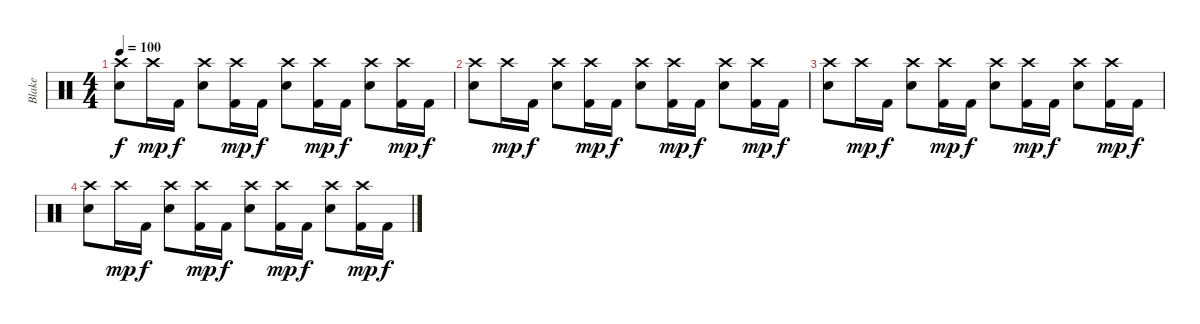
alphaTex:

\track ("Blake" "Blake") {instrument percussion}
\staff {score}
\articulation defaults
\ts (4 4)
\tempo 100
\clef neutral
\ks c
("Crash high (hit)" "Snare (hit) 2").8{dy f} "Crash high (hit)".16{dy mp} "Kick (hit) 2".16{dy f} ("Crash high (hit)" "Snare (hit) 2").8 ("Crash high (hit)" "Kick (hit) 2").16{dy mp} "Kick (hit) 2".16{dy f} ("Crash high (hit)" "Snare (hit) 2").8 ("Crash high (hit)" "Kick (hit) 2").16{dy mp} "Kick (hit) 2".16{dy f} ("Crash high (hit)" "Snare (hit) 2").8 ("Crash high (hit)" "Kick (hit) 2").16{dy mp} "Kick (hit) 2".16{dy f} |
("Crash high (hit)" "Snare (hit) 2").8 "Crash high (hit)".16{dy mp} "Kick (hit) 2".16{dy f} ("Crash high (hit)" "Snare (hit) 2").8 ("Crash high (hit)" "Kick (hit) 2").16{dy mp} "Kick (hit) 2".16{dy f} ("Crash high (hit)" "Snare (hit) 2").8 ("Crash high (hit)" "Kick (hit) 2").16{dy mp} "Kick (hit) 2".16{dy f} ("Crash high (hit)" "Snare (hit) 2").8 ("Crash high (hit)" "Kick (hit) 2").16{dy mp} "Kick (hit) 2".16{dy f} |
("Crash high (hit)" "Snare (hit) 2").8 "Crash high (hit)".16{dy mp} "Kick (hit) 2".16{dy f} ("Crash high (hit)" "Snare (hit) 2").8 ("Crash high (hit)" "Kick (hit) 2").16{dy mp} "Kick (hit) 2".16{dy f} ("Crash high (hit)" "Snare (hit) 2").8 ("Crash high (hit)" "Kick (hit) 2").16{dy mp} "Kick (hit) 2".16{dy f} ("Crash high (hit)" "Snare (hit) 2").8 ("Crash high (hit)" "Kick (hit) 2").16{dy mp} "Kick (hit) 2".16{dy f} |
("Crash high (hit)" "Snare (hit) 2").8 "Crash high (hit)".16{dy mp} "Kick (hit) 2".16{dy f} ("Crash high (hit)" "Snare (hit) 2").8 ("Crash high (hit)" "Kick (hit) 2").16{dy mp} "Kick (hit) 2".16{dy f} ("Crash high (hit)" "Snare (hit) 2").8 ("Crash high (hit)" "Kick (hit) 2").16{dy mp} "Kick (hit) 2".16{dy f} ("Crash high (hit)" "Snare (hit) 2").8 ("Crash high (hit)" "Kick (hit) 2").16{dy mp} "Kick (hit) 2".16{dy f}
